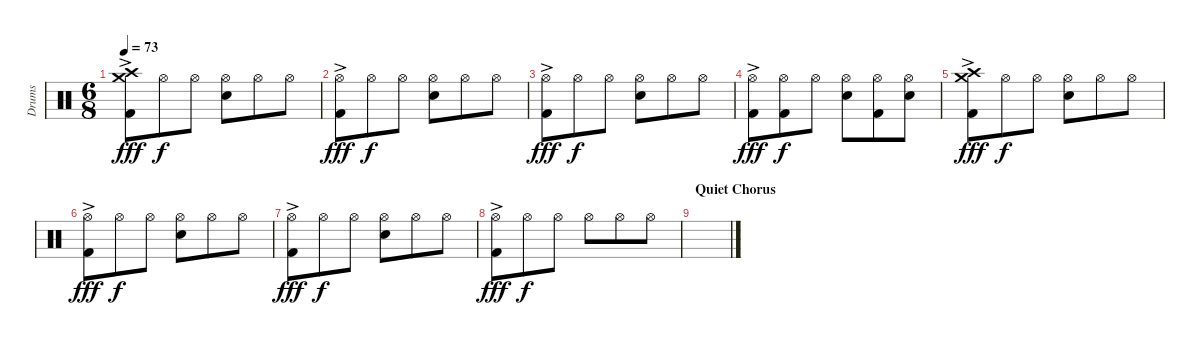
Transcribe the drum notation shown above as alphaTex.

\track ("Drums" "Drums") {instrument percussion}
\staff {score}
\articulation defaults
\ts (6 8)
\tempo 73
\clef neutral
\ks c
("Crash high (hit)" "Crash medium (hit)" "Kick (hit) 2"{ac}).8{dy fff} "Hi-Hat (open)".8{dy f} "Hi-Hat (open)".8 ("Hi-Hat (open)" "Electric Snare (hit)").8 "Hi-Hat (open)".8 "Hi-Hat (open)".8 |
("Hi-Hat (open)" "Kick (hit) 2"{ac}).8{dy fff} "Hi-Hat (open)".8{dy f} "Hi-Hat (open)".8 ("Hi-Hat (open)" "Electric Snare (hit)").8 "Hi-Hat (open)".8 "Hi-Hat (open)".8 |
("Hi-Hat (open)" "Kick (hit) 2"{ac}).8{dy fff} "Hi-Hat (open)".8{dy f} "Hi-Hat (open)".8 ("Hi-Hat (open)" "Electric Snare (hit)").8 "Hi-Hat (open)".8 "Hi-Hat (open)".8 |
("Hi-Hat (open)" "Kick (hit) 2"{ac}).8{dy fff} ("Hi-Hat (open)" "Kick (hit) 2").8{dy f} "Hi-Hat (open)".8 ("Hi-Hat (open)" "Electric Snare (hit)").8 ("Hi-Hat (open)" "Kick (hit) 2").8 ("Hi-Hat (open)" "Electric Snare (hit)").8 |
("Crash high (hit)" "Crash medium (hit)" "Kick (hit) 2"{ac}).8{dy fff} "Hi-Hat (open)".8{dy f} "Hi-Hat (open)".8 ("Hi-Hat (open)" "Electric Snare (hit)").8 "Hi-Hat (open)".8 "Hi-Hat (open)".8 |
("Hi-Hat (open)" "Kick (hit) 2"{ac}).8{dy fff} "Hi-Hat (open)".8{dy f} "Hi-Hat (open)".8 ("Hi-Hat (open)" "Electric Snare (hit)").8 "Hi-Hat (open)".8 "Hi-Hat (open)".8 |
("Hi-Hat (open)" "Kick (hit) 2"{ac}).8{dy fff} "Hi-Hat (open)".8{dy f} "Hi-Hat (open)".8 ("Hi-Hat (open)" "Electric Snare (hit)").8 "Hi-Hat (open)".8 "Hi-Hat (open)".8 |
("Hi-Hat (open)" "Kick (hit) 2"{ac}).8{dy fff} "Hi-Hat (open)".8{dy f} "Hi-Hat (open)".8 "Hi-Hat (open)".8 "Hi-Hat (open)".8 "Hi-Hat (open)".8 |
\section ("" "Quiet Chorus")
